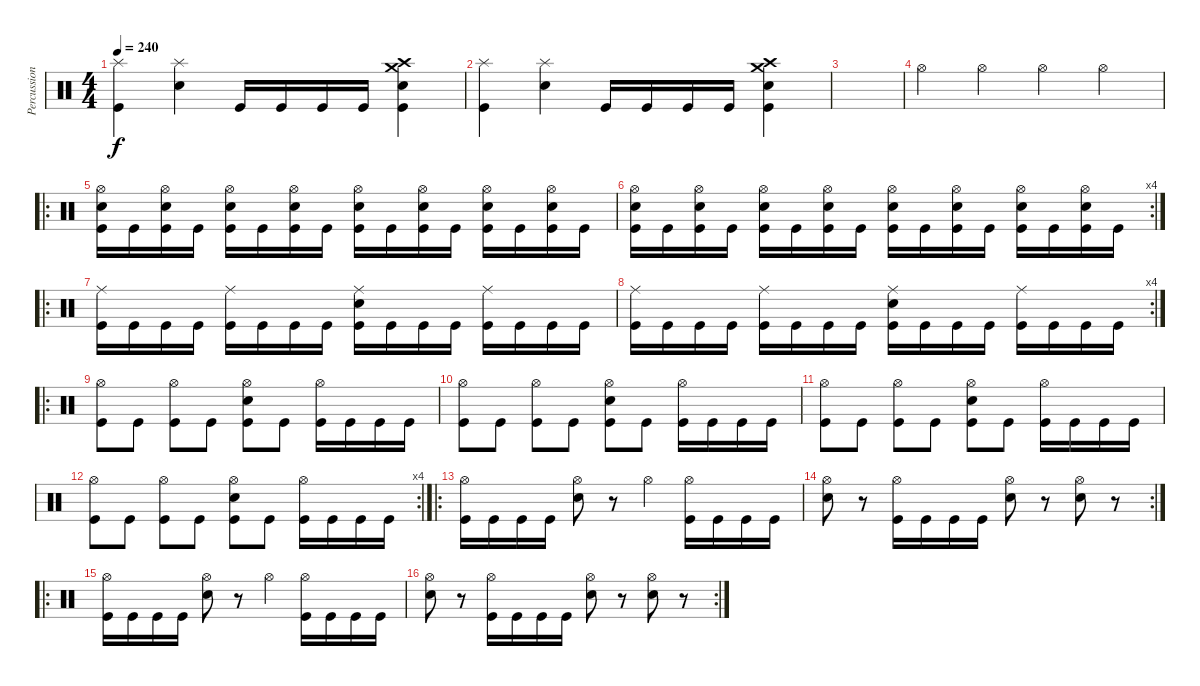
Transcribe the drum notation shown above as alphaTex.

\track ("Percussion" "Percussion") {instrument percussion}
\staff {score}
\articulation defaults
\ts (4 4)
\tempo 240
\clef neutral
\ks c
("Splash (hit)" "Kick (hit)").4{dy f} ("Splash (hit)" "Snare (hit) 2").4 "Kick (hit)".16 "Kick (hit)".16 "Kick (hit)".16 "Kick (hit)".16 ("Crash medium (hit)" "Crash high (hit)" "Snare (hit) 2" "Kick (hit)").4 |
("Splash (hit)" "Kick (hit)").4 ("Splash (hit)" "Snare (hit) 2").4 "Kick (hit)".16 "Kick (hit)".16 "Kick (hit)".16 "Kick (hit)".16 ("Crash medium (hit)" "Crash high (hit)" "Snare (hit) 2" "Kick (hit)").4 |
|
"Hi-Hat (open)".4 "Hi-Hat (open)".4 "Hi-Hat (open)".4 "Hi-Hat (open)".4 |
\ro
("Hi-Hat (open)" "Snare (hit) 2" "Kick (hit)").16 "Kick (hit)".16 ("Hi-Hat (open)" "Snare (hit) 2" "Kick (hit)").16 "Kick (hit)".16 ("Hi-Hat (open)" "Snare (hit) 2" "Kick (hit)").16 "Kick (hit)".16 ("Hi-Hat (open)" "Snare (hit) 2" "Kick (hit)").16 "Kick (hit)".16 ("Hi-Hat (open)" "Snare (hit) 2" "Kick (hit)").16 "Kick (hit)".16 ("Hi-Hat (open)" "Snare (hit) 2" "Kick (hit)").16 "Kick (hit)".16 ("Hi-Hat (open)" "Snare (hit) 2" "Kick (hit)").16 "Kick (hit)".16 ("Hi-Hat (open)" "Snare (hit) 2" "Kick (hit)").16 "Kick (hit)".16 |
\rc 4
("Hi-Hat (open)" "Snare (hit) 2" "Kick (hit)").16 "Kick (hit)".16 ("Hi-Hat (open)" "Snare (hit) 2" "Kick (hit)").16 "Kick (hit)".16 ("Hi-Hat (open)" "Snare (hit) 2" "Kick (hit)").16 "Kick (hit)".16 ("Hi-Hat (open)" "Snare (hit) 2" "Kick (hit)").16 "Kick (hit)".16 ("Hi-Hat (open)" "Snare (hit) 2" "Kick (hit)").16 "Kick (hit)".16 ("Hi-Hat (open)" "Snare (hit) 2" "Kick (hit)").16 "Kick (hit)".16 ("Hi-Hat (open)" "Snare (hit) 2" "Kick (hit)").16 "Kick (hit)".16 ("Hi-Hat (open)" "Snare (hit) 2" "Kick (hit)").16 "Kick (hit)".16 |
\ro
("Ride (middle)" "Kick (hit)").16 "Kick (hit)".16 "Kick (hit)".16 "Kick (hit)".16 ("Ride (middle)" "Kick (hit)").16 "Kick (hit)".16 "Kick (hit)".16 "Kick (hit)".16 ("Ride (middle)" "Snare (hit) 2" "Kick (hit)").16 "Kick (hit)".16 "Kick (hit)".16 "Kick (hit)".16 ("Ride (middle)" "Kick (hit)").16 "Kick (hit)".16 "Kick (hit)".16 "Kick (hit)".16 |
\rc 4
("Ride (middle)" "Kick (hit)").16 "Kick (hit)".16 "Kick (hit)".16 "Kick (hit)".16 ("Ride (middle)" "Kick (hit)").16 "Kick (hit)".16 "Kick (hit)".16 "Kick (hit)".16 ("Ride (middle)" "Snare (hit) 2" "Kick (hit)").16 "Kick (hit)".16 "Kick (hit)".16 "Kick (hit)".16 ("Ride (middle)" "Kick (hit)").16 "Kick (hit)".16 "Kick (hit)".16 "Kick (hit)".16 |
\ro
("Hi-Hat (open)" "Kick (hit)").8 "Kick (hit)".8 ("Hi-Hat (open)" "Kick (hit)").8 "Kick (hit)".8 ("Hi-Hat (open)" "Snare (hit) 2" "Kick (hit)").8 "Kick (hit)".8 ("Hi-Hat (open)" "Kick (hit)").16 "Kick (hit)".16 "Kick (hit)".16 "Kick (hit)".16 |
("Hi-Hat (open)" "Kick (hit)").8 "Kick (hit)".8 ("Hi-Hat (open)" "Kick (hit)").8 "Kick (hit)".8 ("Hi-Hat (open)" "Snare (hit) 2" "Kick (hit)").8 "Kick (hit)".8 ("Hi-Hat (open)" "Kick (hit)").16 "Kick (hit)".16 "Kick (hit)".16 "Kick (hit)".16 |
("Hi-Hat (open)" "Kick (hit)").8 "Kick (hit)".8 ("Hi-Hat (open)" "Kick (hit)").8 "Kick (hit)".8 ("Hi-Hat (open)" "Snare (hit) 2" "Kick (hit)").8 "Kick (hit)".8 ("Hi-Hat (open)" "Kick (hit)").16 "Kick (hit)".16 "Kick (hit)".16 "Kick (hit)".16 |
\rc 4
("Hi-Hat (open)" "Kick (hit)").8 "Kick (hit)".8 ("Hi-Hat (open)" "Kick (hit)").8 "Kick (hit)".8 ("Hi-Hat (open)" "Snare (hit) 2" "Kick (hit)").8 "Kick (hit)".8 ("Hi-Hat (open)" "Kick (hit)").16 "Kick (hit)".16 "Kick (hit)".16 "Kick (hit)".16 |
\ro
("Hi-Hat (open)" "Kick (hit)").16 "Kick (hit)".16 "Kick (hit)".16 "Kick (hit)".16 ("Hi-Hat (open)" "Snare (hit) 2").8 r.8 "Hi-Hat (open)".4 ("Hi-Hat (open)" "Kick (hit)").16 "Kick (hit)".16 "Kick (hit)".16 "Kick (hit)".16 |
\rc 2
("Hi-Hat (open)" "Snare (hit) 2").8 r.8 ("Hi-Hat (open)" "Kick (hit)").16 "Kick (hit)".16 "Kick (hit)".16 "Kick (hit)".16 ("Hi-Hat (open)" "Snare (hit) 2").8 r.8 ("Hi-Hat (open)" "Snare (hit) 2").8 r.8 |
\ro
("Hi-Hat (open)" "Kick (hit)").16 "Kick (hit)".16 "Kick (hit)".16 "Kick (hit)".16 ("Hi-Hat (open)" "Snare (hit) 2").8 r.8 "Hi-Hat (open)".4 ("Hi-Hat (open)" "Kick (hit)").16 "Kick (hit)".16 "Kick (hit)".16 "Kick (hit)".16 |
\rc 2
("Hi-Hat (open)" "Snare (hit) 2").8 r.8 ("Hi-Hat (open)" "Kick (hit)").16 "Kick (hit)".16 "Kick (hit)".16 "Kick (hit)".16 ("Hi-Hat (open)" "Snare (hit) 2").8 r.8 ("Hi-Hat (open)" "Snare (hit) 2").8 r.8
